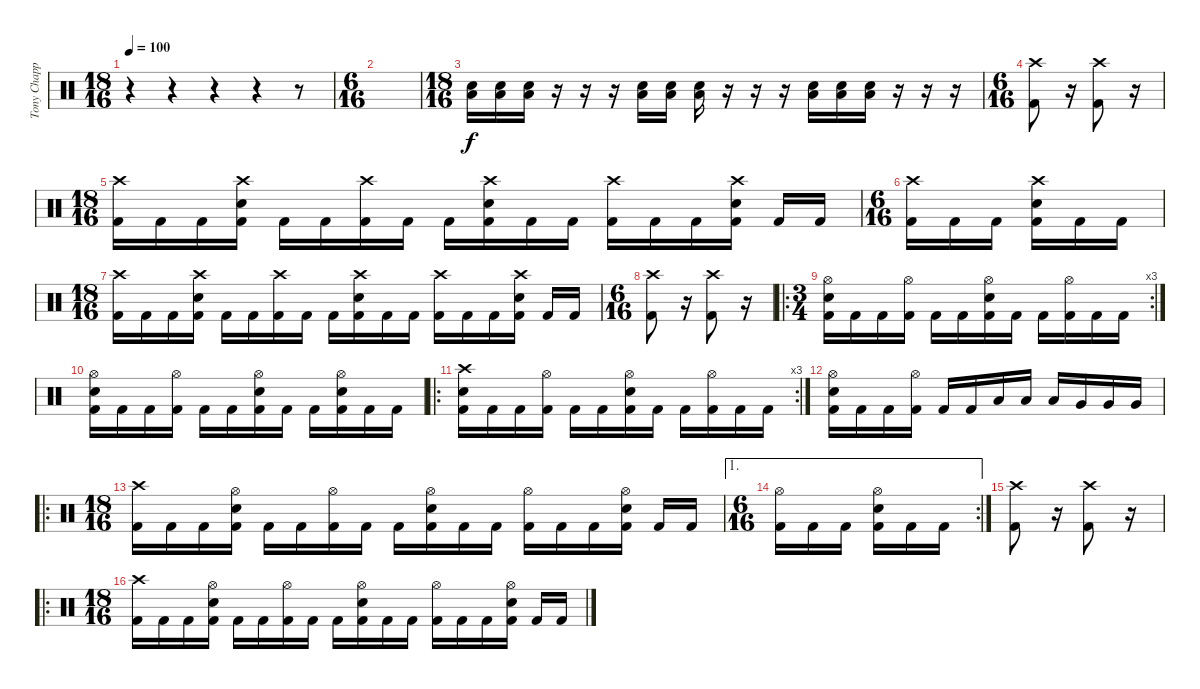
\track ("Tony Chappelle: Drums" "Tony Chapp") {instrument percussion}
\staff {score}
\articulation defaults
\ts (18 16)
\tempo 100
\clef neutral
\ks c
r.4{dy f} r.4 r.4 r.4 r.8 |
\ts (6 16)
|
\ts (18 16)
("Snare (hit) 2" "Low Tom (hit)").16 ("Snare (hit) 2" "Low Tom (hit)").16 ("Snare (hit) 2" "Low Tom (hit)").16 r.16 r.16 r.16 ("Snare (hit) 2" "Low Tom (hit)").16 ("Snare (hit) 2" "Low Tom (hit)").16 ("Snare (hit) 2" "Low Tom (hit)").16 r.16 r.16 r.16 ("Snare (hit) 2" "Low Tom (hit)").16 ("Snare (hit) 2" "Low Tom (hit)").16 ("Snare (hit) 2" "Low Tom (hit)").16 r.16 r.16 r.16 |
\ts (6 16)
("Crash high (hit)" "Kick (hit) 2").8 r.16 ("Crash high (hit)" "Kick (hit) 2").8 r.16 |
\ts (18 16)
("Crash high (hit)" "Kick (hit) 2").16 "Kick (hit) 2".16 "Kick (hit) 2".16 ("Electric Snare (hit)" "Crash high (hit)" "Kick (hit) 2").16 "Kick (hit) 2".16 "Kick (hit) 2".16 ("Crash high (hit)" "Kick (hit) 2").16 "Kick (hit) 2".16 "Kick (hit) 2".16 ("Electric Snare (hit)" "Crash high (hit)" "Kick (hit) 2").16 "Kick (hit) 2".16 "Kick (hit) 2".16 ("Crash high (hit)" "Kick (hit) 2").16 "Kick (hit) 2".16 "Kick (hit) 2".16 ("Electric Snare (hit)" "Crash high (hit)" "Kick (hit) 2").16 "Kick (hit) 2".16 "Kick (hit) 2".16 |
\ts (6 16)
("Crash high (hit)" "Kick (hit) 2").16 "Kick (hit) 2".16 "Kick (hit) 2".16 ("Electric Snare (hit)" "Crash high (hit)" "Kick (hit) 2").16 "Kick (hit) 2".16 "Kick (hit) 2".16 |
\ts (18 16)
("Crash high (hit)" "Kick (hit) 2").16 "Kick (hit) 2".16 "Kick (hit) 2".16 ("Electric Snare (hit)" "Crash high (hit)" "Kick (hit) 2").16 "Kick (hit) 2".16 "Kick (hit) 2".16 ("Crash high (hit)" "Kick (hit) 2").16 "Kick (hit) 2".16 "Kick (hit) 2".16 ("Electric Snare (hit)" "Crash high (hit)" "Kick (hit) 2").16 "Kick (hit) 2".16 "Kick (hit) 2".16 ("Crash high (hit)" "Kick (hit) 2").16 "Kick (hit) 2".16 "Kick (hit) 2".16 ("Electric Snare (hit)" "Crash high (hit)" "Kick (hit) 2").16 "Kick (hit) 2".16 "Kick (hit) 2".16 |
\ts (6 16)
("Crash high (hit)" "Kick (hit) 2").8 r.16 ("Crash high (hit)" "Kick (hit) 2").8 r.16 |
\ro
\rc 3
\ts (3 4)
("Hi-Hat (open)" "Electric Snare (hit)" "Kick (hit) 2").16 "Kick (hit) 2".16 "Kick (hit) 2".16 ("Hi-Hat (open)" "Kick (hit) 2").16 "Kick (hit) 2".16 "Kick (hit) 2".16 ("Hi-Hat (open)" "Electric Snare (hit)" "Kick (hit) 2").16 "Kick (hit) 2".16 "Kick (hit) 2".16 ("Hi-Hat (open)" "Kick (hit) 2").16 "Kick (hit) 2".16 "Kick (hit) 2".16 |
("Hi-Hat (open)" "Electric Snare (hit)" "Kick (hit) 2").16 "Kick (hit) 2".16 "Kick (hit) 2".16 ("Hi-Hat (open)" "Kick (hit) 2").16 "Kick (hit) 2".16 "Kick (hit) 2".16 ("Hi-Hat (open)" "Electric Snare (hit)" "Kick (hit) 2").16 "Kick (hit) 2".16 "Kick (hit) 2".16 ("Hi-Hat (open)" "Electric Snare (hit)" "Kick (hit) 2").16 "Kick (hit) 2".16 "Kick (hit) 2".16 |
\ro
\rc 3
("Crash high (hit)" "Electric Snare (hit)" "Kick (hit) 2").16 "Kick (hit) 2".16 "Kick (hit) 2".16 ("Hi-Hat (open)" "Kick (hit) 2").16 "Kick (hit) 2".16 "Kick (hit) 2".16 ("Hi-Hat (open)" "Electric Snare (hit)" "Kick (hit) 2").16 "Kick (hit) 2".16 "Kick (hit) 2".16 ("Hi-Hat (open)" "Kick (hit) 2").16 "Kick (hit) 2".16 "Kick (hit) 2".16 |
("Hi-Hat (open)" "Electric Snare (hit)" "Kick (hit) 2").16 "Kick (hit) 2".16 "Kick (hit) 2".16 ("Hi-Hat (open)" "Kick (hit) 2").16 "Kick (hit) 2".16 "Kick (hit) 2".16 "Low Tom (hit)".16 "Low Tom (hit)".16 "Low Tom (hit)".16 "Very Low Tom (hit)".16 "Very Low Tom (hit)".16 "Very Low Tom (hit)".16 |
\ro
\ts (18 16)
("Crash high (hit)" "Kick (hit) 2").16 "Kick (hit) 2".16 "Kick (hit) 2".16 ("Electric Snare (hit)" "Hi-Hat (open)" "Kick (hit) 2").16 "Kick (hit) 2".16 "Kick (hit) 2".16 ("Hi-Hat (open)" "Kick (hit) 2").16 "Kick (hit) 2".16 "Kick (hit) 2".16 ("Electric Snare (hit)" "Hi-Hat (open)" "Kick (hit) 2").16 "Kick (hit) 2".16 "Kick (hit) 2".16 ("Hi-Hat (open)" "Kick (hit) 2").16 "Kick (hit) 2".16 "Kick (hit) 2".16 ("Electric Snare (hit)" "Hi-Hat (open)" "Kick (hit) 2").16 "Kick (hit) 2".16 "Kick (hit) 2".16 |
\ae 1
\rc 2
\ts (6 16)
("Hi-Hat (open)" "Kick (hit) 2").16 "Kick (hit) 2".16 "Kick (hit) 2".16 ("Electric Snare (hit)" "Hi-Hat (open)" "Kick (hit) 2").16 "Kick (hit) 2".16 "Kick (hit) 2".16 |
("Crash high (hit)" "Kick (hit) 2").8 r.16 ("Crash high (hit)" "Kick (hit) 2").8 r.16 |
\ro
\ts (18 16)
("Crash high (hit)" "Kick (hit) 2").16 "Kick (hit) 2".16 "Kick (hit) 2".16 ("Electric Snare (hit)" "Hi-Hat (open)" "Kick (hit) 2").16 "Kick (hit) 2".16 "Kick (hit) 2".16 ("Hi-Hat (open)" "Kick (hit) 2").16 "Kick (hit) 2".16 "Kick (hit) 2".16 ("Electric Snare (hit)" "Hi-Hat (open)" "Kick (hit) 2").16 "Kick (hit) 2".16 "Kick (hit) 2".16 ("Hi-Hat (open)" "Kick (hit) 2").16 "Kick (hit) 2".16 "Kick (hit) 2".16 ("Electric Snare (hit)" "Hi-Hat (open)" "Kick (hit) 2").16 "Kick (hit) 2".16 "Kick (hit) 2".16
